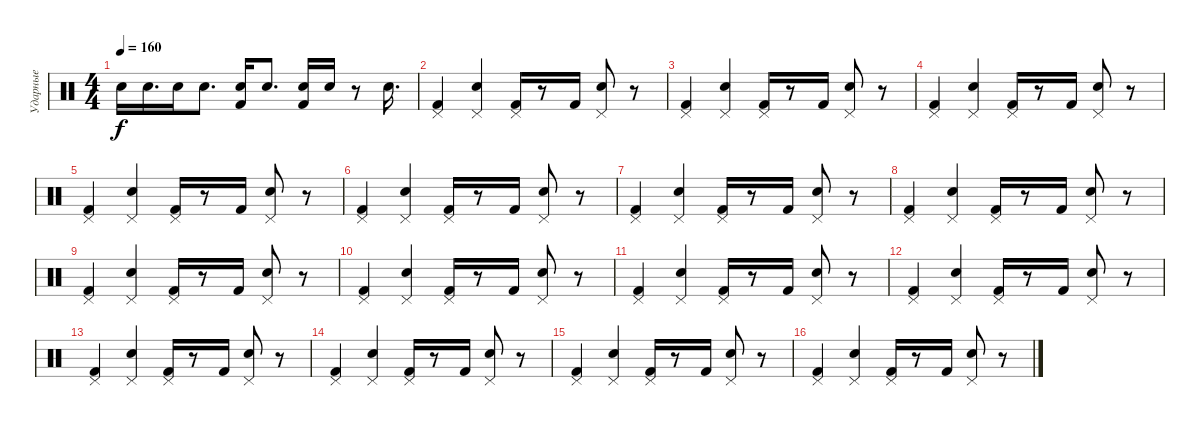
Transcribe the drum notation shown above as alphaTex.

\track ("Ударные" "Ударные") {instrument percussion}
\staff {score}
\articulation defaults
\ts (4 4)
\tempo 160
\clef neutral
\ks c "Snare (hit) 2".16{dy f} "Snare (hit) 2".16{d} "Snare (hit) 2".16 "Snare (hit) 2".8{d}
("Snare (hit) 2" "Kick (hit) 2").16 "Snare (hit) 2".8{d} ("Snare (hit) 2" "Kick (hit) 2").16 "Snare (hit) 2".16 r.8 "Snare (hit) 2".16{d} |
("Pedal Hi-Hat (hit)" "Kick (hit) 2").4 ("Pedal Hi-Hat (hit)" "Snare (hit) 2").4 ("Pedal Hi-Hat (hit)" "Kick (hit) 2").16 r.8 "Kick (hit) 2".16 ("Pedal Hi-Hat (hit)" "Snare (hit) 2").8 r.8 |
("Pedal Hi-Hat (hit)" "Kick (hit) 2").4 ("Pedal Hi-Hat (hit)" "Snare (hit) 2").4 ("Pedal Hi-Hat (hit)" "Kick (hit) 2").16 r.8 "Kick (hit) 2".16 ("Pedal Hi-Hat (hit)" "Snare (hit) 2").8 r.8 |
("Pedal Hi-Hat (hit)" "Kick (hit) 2").4 ("Pedal Hi-Hat (hit)" "Snare (hit) 2").4 ("Pedal Hi-Hat (hit)" "Kick (hit) 2").16 r.8 "Kick (hit) 2".16 ("Pedal Hi-Hat (hit)" "Snare (hit) 2").8 r.8 |
("Pedal Hi-Hat (hit)" "Kick (hit) 2").4 ("Pedal Hi-Hat (hit)" "Snare (hit) 2").4 ("Pedal Hi-Hat (hit)" "Kick (hit) 2").16 r.8 "Kick (hit) 2".16 ("Pedal Hi-Hat (hit)" "Snare (hit) 2").8 r.8 |
("Pedal Hi-Hat (hit)" "Kick (hit) 2").4 ("Pedal Hi-Hat (hit)" "Snare (hit) 2").4 ("Pedal Hi-Hat (hit)" "Kick (hit) 2").16 r.8 "Kick (hit) 2".16 ("Pedal Hi-Hat (hit)" "Snare (hit) 2").8 r.8 |
("Pedal Hi-Hat (hit)" "Kick (hit) 2").4 ("Pedal Hi-Hat (hit)" "Snare (hit) 2").4 ("Pedal Hi-Hat (hit)" "Kick (hit) 2").16 r.8 "Kick (hit) 2".16 ("Pedal Hi-Hat (hit)" "Snare (hit) 2").8 r.8 |
("Pedal Hi-Hat (hit)" "Kick (hit) 2").4 ("Pedal Hi-Hat (hit)" "Snare (hit) 2").4 ("Pedal Hi-Hat (hit)" "Kick (hit) 2").16 r.8 "Kick (hit) 2".16 ("Pedal Hi-Hat (hit)" "Snare (hit) 2").8 r.8 |
("Pedal Hi-Hat (hit)" "Kick (hit) 2").4 ("Pedal Hi-Hat (hit)" "Snare (hit) 2").4 ("Pedal Hi-Hat (hit)" "Kick (hit) 2").16 r.8 "Kick (hit) 2".16 ("Pedal Hi-Hat (hit)" "Snare (hit) 2").8 r.8 |
("Pedal Hi-Hat (hit)" "Kick (hit) 2").4 ("Pedal Hi-Hat (hit)" "Snare (hit) 2").4 ("Pedal Hi-Hat (hit)" "Kick (hit) 2").16 r.8 "Kick (hit) 2".16 ("Pedal Hi-Hat (hit)" "Snare (hit) 2").8 r.8 |
("Pedal Hi-Hat (hit)" "Kick (hit) 2").4 ("Pedal Hi-Hat (hit)" "Snare (hit) 2").4 ("Pedal Hi-Hat (hit)" "Kick (hit) 2").16 r.8 "Kick (hit) 2".16 ("Pedal Hi-Hat (hit)" "Snare (hit) 2").8 r.8 |
("Pedal Hi-Hat (hit)" "Kick (hit) 2").4 ("Pedal Hi-Hat (hit)" "Snare (hit) 2").4 ("Pedal Hi-Hat (hit)" "Kick (hit) 2").16 r.8 "Kick (hit) 2".16 ("Pedal Hi-Hat (hit)" "Snare (hit) 2").8 r.8 |
("Pedal Hi-Hat (hit)" "Kick (hit) 2").4 ("Pedal Hi-Hat (hit)" "Snare (hit) 2").4 ("Pedal Hi-Hat (hit)" "Kick (hit) 2").16 r.8 "Kick (hit) 2".16 ("Pedal Hi-Hat (hit)" "Snare (hit) 2").8 r.8 |
("Pedal Hi-Hat (hit)" "Kick (hit) 2").4 ("Pedal Hi-Hat (hit)" "Snare (hit) 2").4 ("Pedal Hi-Hat (hit)" "Kick (hit) 2").16 r.8 "Kick (hit) 2".16 ("Pedal Hi-Hat (hit)" "Snare (hit) 2").8 r.8 |
("Pedal Hi-Hat (hit)" "Kick (hit) 2").4 ("Pedal Hi-Hat (hit)" "Snare (hit) 2").4 ("Pedal Hi-Hat (hit)" "Kick (hit) 2").16 r.8 "Kick (hit) 2".16 ("Pedal Hi-Hat (hit)" "Snare (hit) 2").8 r.8 |
("Pedal Hi-Hat (hit)" "Kick (hit) 2").4 ("Pedal Hi-Hat (hit)" "Snare (hit) 2").4 ("Pedal Hi-Hat (hit)" "Kick (hit) 2").16 r.8 "Kick (hit) 2".16 ("Pedal Hi-Hat (hit)" "Snare (hit) 2").8 r.8
